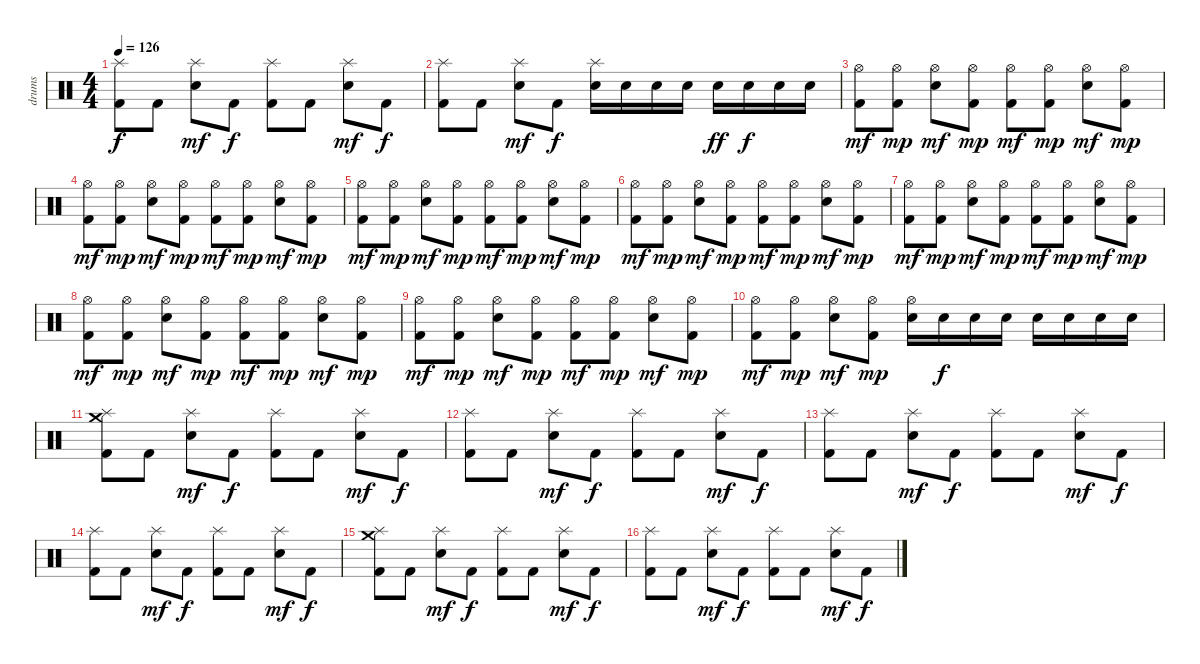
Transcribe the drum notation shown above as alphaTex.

\track ("drums" "drums") {instrument percussion}
\staff {score}
\articulation defaults
\ts (4 4)
\tempo 126
\clef neutral
\ks c
("Kick (hit) 2" "Splash (hit)").8{dy f} "Kick (hit) 2".8 ("Snare (hit) 2" "Splash (hit)").8{dy mf} "Kick (hit) 2".8{dy f} ("Kick (hit) 2" "Splash (hit)").8 "Kick (hit) 2".8 ("Snare (hit) 2" "Splash (hit)").8{dy mf} "Kick (hit) 2".8{dy f} |
("Kick (hit) 2" "Splash (hit)").8 "Kick (hit) 2".8 ("Snare (hit) 2" "Splash (hit)").8{dy mf} "Kick (hit) 2".8{dy f} ("Snare (hit) 2" "Splash (hit)").16 "Snare (hit) 2".16 "Snare (hit) 2".16 "Snare (hit) 2".16 "Snare (hit) 2".16{dy ff} "Snare (hit) 2".16{dy f} "Snare (hit) 2".16 "Snare (hit) 2".16 |
("Kick (hit) 2" "Hi-Hat (open)").8{dy mf} ("Kick (hit) 2" "Hi-Hat (open)").8{dy mp} ("Snare (hit) 2" "Hi-Hat (open)").8{dy mf} ("Kick (hit) 2" "Hi-Hat (open)").8{dy mp} ("Kick (hit) 2" "Hi-Hat (open)").8{dy mf} ("Kick (hit) 2" "Hi-Hat (open)").8{dy mp} ("Snare (hit) 2" "Hi-Hat (open)").8{dy mf} ("Kick (hit) 2" "Hi-Hat (open)").8{dy mp} |
("Hi-Hat (open)" "Kick (hit) 2").8{dy mf} ("Hi-Hat (open)" "Kick (hit) 2").8{dy mp} ("Snare (hit) 2" "Hi-Hat (open)").8{dy mf} ("Kick (hit) 2" "Hi-Hat (open)").8{dy mp} ("Kick (hit) 2" "Hi-Hat (open)").8{dy mf} ("Kick (hit) 2" "Hi-Hat (open)").8{dy mp} ("Snare (hit) 2" "Hi-Hat (open)").8{dy mf} ("Kick (hit) 2" "Hi-Hat (open)").8{dy mp} |
("Kick (hit) 2" "Hi-Hat (open)").8{dy mf} ("Kick (hit) 2" "Hi-Hat (open)").8{dy mp} ("Snare (hit) 2" "Hi-Hat (open)").8{dy mf} ("Kick (hit) 2" "Hi-Hat (open)").8{dy mp} ("Kick (hit) 2" "Hi-Hat (open)").8{dy mf} ("Kick (hit) 2" "Hi-Hat (open)").8{dy mp} ("Snare (hit) 2" "Hi-Hat (open)").8{dy mf} ("Kick (hit) 2" "Hi-Hat (open)").8{dy mp} |
("Hi-Hat (open)" "Kick (hit) 2").8{dy mf} ("Hi-Hat (open)" "Kick (hit) 2").8{dy mp} ("Snare (hit) 2" "Hi-Hat (open)").8{dy mf} ("Kick (hit) 2" "Hi-Hat (open)").8{dy mp} ("Kick (hit) 2" "Hi-Hat (open)").8{dy mf} ("Kick (hit) 2" "Hi-Hat (open)").8{dy mp} ("Snare (hit) 2" "Hi-Hat (open)").8{dy mf} ("Kick (hit) 2" "Hi-Hat (open)").8{dy mp} |
("Kick (hit) 2" "Hi-Hat (open)").8{dy mf} ("Kick (hit) 2" "Hi-Hat (open)").8{dy mp} ("Snare (hit) 2" "Hi-Hat (open)").8{dy mf} ("Kick (hit) 2" "Hi-Hat (open)").8{dy mp} ("Kick (hit) 2" "Hi-Hat (open)").8{dy mf} ("Kick (hit) 2" "Hi-Hat (open)").8{dy mp} ("Snare (hit) 2" "Hi-Hat (open)").8{dy mf} ("Kick (hit) 2" "Hi-Hat (open)").8{dy mp} |
("Kick (hit) 2" "Hi-Hat (open)").8{dy mf} ("Kick (hit) 2" "Hi-Hat (open)").8{dy mp} ("Snare (hit) 2" "Hi-Hat (open)").8{dy mf} ("Kick (hit) 2" "Hi-Hat (open)").8{dy mp} ("Kick (hit) 2" "Hi-Hat (open)").8{dy mf} ("Kick (hit) 2" "Hi-Hat (open)").8{dy mp} ("Snare (hit) 2" "Hi-Hat (open)").8{dy mf} ("Kick (hit) 2" "Hi-Hat (open)").8{dy mp} |
("Kick (hit) 2" "Hi-Hat (open)").8{dy mf} ("Kick (hit) 2" "Hi-Hat (open)").8{dy mp} ("Snare (hit) 2" "Hi-Hat (open)").8{dy mf} ("Kick (hit) 2" "Hi-Hat (open)").8{dy mp} ("Kick (hit) 2" "Hi-Hat (open)").8{dy mf} ("Kick (hit) 2" "Hi-Hat (open)").8{dy mp} ("Snare (hit) 2" "Hi-Hat (open)").8{dy mf} ("Kick (hit) 2" "Hi-Hat (open)").8{dy mp} |
("Hi-Hat (open)" "Kick (hit) 2").8{dy mf} ("Hi-Hat (open)" "Kick (hit) 2").8{dy mp} ("Snare (hit) 2" "Hi-Hat (open)").8{dy mf} ("Kick (hit) 2" "Hi-Hat (open)").8{dy mp} ("Snare (hit) 2" "Hi-Hat (open)").16 "Snare (hit) 2".16{dy f} "Snare (hit) 2".16 "Snare (hit) 2".16 "Snare (hit) 2".16 "Snare (hit) 2".16 "Snare (hit) 2".16 "Snare (hit) 2".16 |
("Crash medium (hit)" "Kick (hit) 2" "Splash (hit)").8 "Kick (hit) 2".8 ("Snare (hit) 2" "Splash (hit)").8{dy mf} "Kick (hit) 2".8{dy f} ("Kick (hit) 2" "Splash (hit)").8 "Kick (hit) 2".8 ("Snare (hit) 2" "Splash (hit)").8{dy mf} "Kick (hit) 2".8{dy f} |
("Kick (hit) 2" "Splash (hit)").8 "Kick (hit) 2".8 ("Snare (hit) 2" "Splash (hit)").8{dy mf} "Kick (hit) 2".8{dy f} ("Kick (hit) 2" "Splash (hit)").8 "Kick (hit) 2".8 ("Snare (hit) 2" "Splash (hit)").8{dy mf} "Kick (hit) 2".8{dy f} |
("Kick (hit) 2" "Splash (hit)").8 "Kick (hit) 2".8 ("Snare (hit) 2" "Splash (hit)").8{dy mf} "Kick (hit) 2".8{dy f} ("Kick (hit) 2" "Splash (hit)").8 "Kick (hit) 2".8 ("Snare (hit) 2" "Splash (hit)").8{dy mf} "Kick (hit) 2".8{dy f} |
("Kick (hit) 2" "Splash (hit)").8 "Kick (hit) 2".8 ("Snare (hit) 2" "Splash (hit)").8{dy mf} "Kick (hit) 2".8{dy f} ("Kick (hit) 2" "Splash (hit)").8 "Kick (hit) 2".8 ("Snare (hit) 2" "Splash (hit)").8{dy mf} "Kick (hit) 2".8{dy f} |
("Crash medium (hit)" "Kick (hit) 2" "Splash (hit)").8 "Kick (hit) 2".8 ("Snare (hit) 2" "Splash (hit)").8{dy mf} "Kick (hit) 2".8{dy f} ("Kick (hit) 2" "Splash (hit)").8 "Kick (hit) 2".8 ("Snare (hit) 2" "Splash (hit)").8{dy mf} "Kick (hit) 2".8{dy f} |
("Kick (hit) 2" "Splash (hit)").8 "Kick (hit) 2".8 ("Snare (hit) 2" "Splash (hit)").8{dy mf} "Kick (hit) 2".8{dy f} ("Kick (hit) 2" "Splash (hit)").8 "Kick (hit) 2".8 ("Snare (hit) 2" "Splash (hit)").8{dy mf} "Kick (hit) 2".8{dy f}
